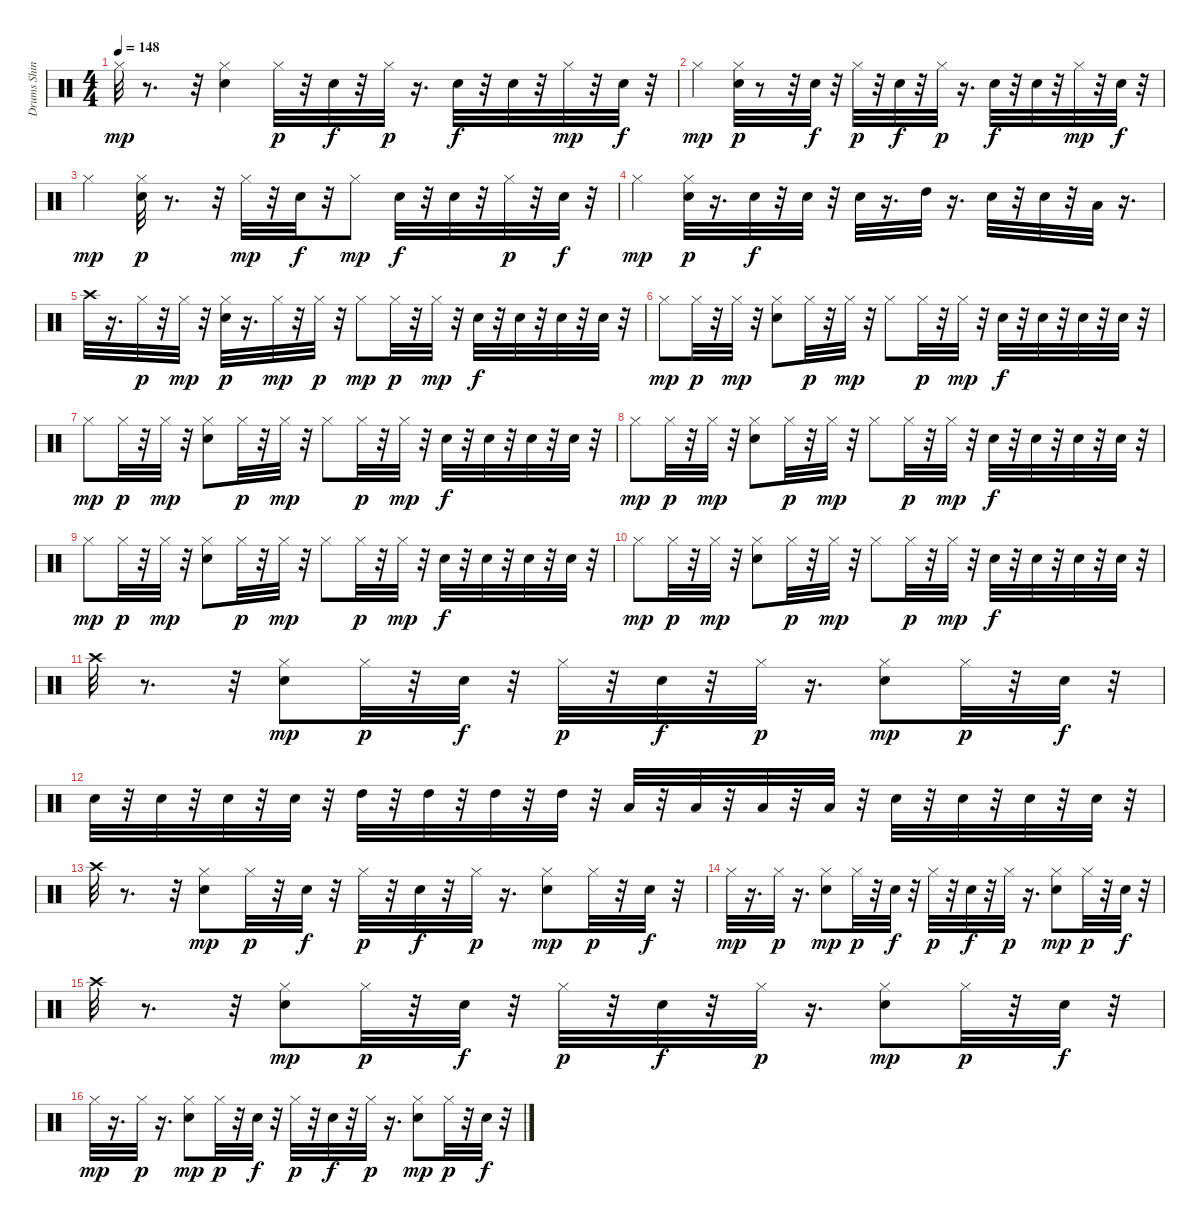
\track ("Drums Shinya         " "Drums Shin") {instrument percussion}
\staff {score}
\articulation defaults
\ts (4 4)
\tempo 148
\clef neutral
\ks c "Hi-Hat (closed)".32{dy mp}
r.8{d} r.32 ("Electric Snare (hit)" "Hi-Hat (closed)").4 "Hi-Hat (closed)".32{dy p} r.32 "Electric Snare (hit)".32{dy f} r.32 "Hi-Hat (closed)".32{dy p} r.16{d} "Electric Snare (hit)".32{dy f} r.32 "Electric Snare (hit)".32 r.32 "Hi-Hat (closed)".32{dy mp} r.32 "Electric Snare (hit)".32{dy f} r.32 |
"Hi-Hat (closed)".4{dy mp} ("Electric Snare (hit)" "Hi-Hat (closed)").32{dy p} r.8 r.32 "Electric Snare (hit)".32{dy f} r.32 "Hi-Hat (closed)".32{dy p} r.32 "Electric Snare (hit)".32{dy f} r.32 "Hi-Hat (closed)".32{dy p} r.16{d} "Electric Snare (hit)".32{dy f} r.32 "Electric Snare (hit)".32 r.32 "Hi-Hat (closed)".32{dy mp} r.32 "Electric Snare (hit)".32{dy f} r.32 |
"Hi-Hat (closed)".4{dy mp} ("Electric Snare (hit)" "Hi-Hat (closed)").32{dy p} r.8{d} r.32 "Hi-Hat (closed)".32{dy mp} r.32 "Electric Snare (hit)".32{dy f} r.32 "Hi-Hat (closed)".8{dy mp} "Electric Snare (hit)".32{dy f} r.32 "Electric Snare (hit)".32 r.32 "Hi-Hat (closed)".32{dy p} r.32 "Electric Snare (hit)".32{dy f} r.32 |
"Hi-Hat (closed)".4{dy mp} ("Electric Snare (hit)" "Hi-Hat (closed)").32{dy p} r.16{d} "Electric Snare (hit)".32{dy f} r.32 "Electric Snare (hit)".32 r.32 "Electric Snare (hit)".32 r.16{d} "High Tom (hit)".32 r.16{d} "Electric Snare (hit)".32 r.32 "Electric Snare (hit)".32 r.32 "Low Tom (hit)".32 r.16{d} |
"Crash high (hit)".32 r.16{d} "Hi-Hat (closed)".32{dy p} r.32 "Hi-Hat (closed)".32{dy mp} r.32 ("Electric Snare (hit)" "Hi-Hat (closed)").32{dy p} r.16{d} "Hi-Hat (closed)".32{dy mp} r.32 "Hi-Hat (closed)".32{dy p} r.32 "Hi-Hat (closed)".8{dy mp} "Hi-Hat (closed)".32{dy p} r.32 "Hi-Hat (closed)".32{dy mp} r.32 "Electric Snare (hit)".32{dy f} r.32 "Electric Snare (hit)".32 r.32 "Electric Snare (hit)".32 r.32 "Electric Snare (hit)".32 r.32 |
"Hi-Hat (closed)".8{dy mp} "Hi-Hat (closed)".32{dy p} r.32 "Hi-Hat (closed)".32{dy mp} r.32 ("Electric Snare (hit)" "Hi-Hat (closed)").8 "Hi-Hat (closed)".32{dy p} r.32 "Hi-Hat (closed)".32{dy mp} r.32 "Hi-Hat (closed)".8 "Hi-Hat (closed)".32{dy p} r.32 "Hi-Hat (closed)".32{dy mp} r.32 "Electric Snare (hit)".32{dy f} r.32 "Electric Snare (hit)".32 r.32 "Electric Snare (hit)".32 r.32 "Electric Snare (hit)".32 r.32 |
"Hi-Hat (closed)".8{dy mp} "Hi-Hat (closed)".32{dy p} r.32 "Hi-Hat (closed)".32{dy mp} r.32 ("Electric Snare (hit)" "Hi-Hat (closed)").8 "Hi-Hat (closed)".32{dy p} r.32 "Hi-Hat (closed)".32{dy mp} r.32 "Hi-Hat (closed)".8 "Hi-Hat (closed)".32{dy p} r.32 "Hi-Hat (closed)".32{dy mp} r.32 "Electric Snare (hit)".32{dy f} r.32 "Electric Snare (hit)".32 r.32 "Electric Snare (hit)".32 r.32 "Electric Snare (hit)".32 r.32 |
"Hi-Hat (closed)".8{dy mp} "Hi-Hat (closed)".32{dy p} r.32 "Hi-Hat (closed)".32{dy mp} r.32 ("Electric Snare (hit)" "Hi-Hat (closed)").8 "Hi-Hat (closed)".32{dy p} r.32 "Hi-Hat (closed)".32{dy mp} r.32 "Hi-Hat (closed)".8 "Hi-Hat (closed)".32{dy p} r.32 "Hi-Hat (closed)".32{dy mp} r.32 "Electric Snare (hit)".32{dy f} r.32 "Electric Snare (hit)".32 r.32 "Electric Snare (hit)".32 r.32 "Electric Snare (hit)".32 r.32 |
"Hi-Hat (closed)".8{dy mp} "Hi-Hat (closed)".32{dy p} r.32 "Hi-Hat (closed)".32{dy mp} r.32 ("Electric Snare (hit)" "Hi-Hat (closed)").8 "Hi-Hat (closed)".32{dy p} r.32 "Hi-Hat (closed)".32{dy mp} r.32 "Hi-Hat (closed)".8 "Hi-Hat (closed)".32{dy p} r.32 "Hi-Hat (closed)".32{dy mp} r.32 "Electric Snare (hit)".32{dy f} r.32 "Electric Snare (hit)".32 r.32 "Electric Snare (hit)".32 r.32 "Electric Snare (hit)".32 r.32 |
"Hi-Hat (closed)".8{dy mp} "Hi-Hat (closed)".32{dy p} r.32 "Hi-Hat (closed)".32{dy mp} r.32 ("Electric Snare (hit)" "Hi-Hat (closed)").8 "Hi-Hat (closed)".32{dy p} r.32 "Hi-Hat (closed)".32{dy mp} r.32 "Hi-Hat (closed)".8 "Hi-Hat (closed)".32{dy p} r.32 "Hi-Hat (closed)".32{dy mp} r.32 "Electric Snare (hit)".32{dy f} r.32 "Electric Snare (hit)".32 r.32 "Electric Snare (hit)".32 r.32 "Electric Snare (hit)".32 r.32 |
"Crash high (hit)".32 r.8{d} r.32 ("Electric Snare (hit)" "Hi-Hat (closed)").8{dy mp} "Hi-Hat (closed)".32{dy p} r.32 "Electric Snare (hit)".32{dy f} r.32 "Hi-Hat (closed)".32{dy p} r.32 "Electric Snare (hit)".32{dy f} r.32 "Hi-Hat (closed)".32{dy p} r.16{d} ("Electric Snare (hit)" "Hi-Hat (closed)").8{dy mp} "Hi-Hat (closed)".32{dy p} r.32 "Electric Snare (hit)".32{dy f} r.32 |
"Electric Snare (hit)".32 r.32 "Electric Snare (hit)".32 r.32 "Electric Snare (hit)".32 r.32 "Electric Snare (hit)".32 r.32 "High Tom (hit)".32 r.32 "High Tom (hit)".32 r.32 "High Tom (hit)".32 r.32 "High Tom (hit)".32 r.32 "Low Tom (hit)".32 r.32 "Low Tom (hit)".32 r.32 "Low Tom (hit)".32 r.32 "Low Tom (hit)".32 r.32 "Electric Snare (hit)".32 r.32 "Electric Snare (hit)".32 r.32 "Electric Snare (hit)".32 r.32 "Electric Snare (hit)".32 r.32 |
"Crash high (hit)".32 r.8{d} r.32 ("Electric Snare (hit)" "Hi-Hat (closed)").8{dy mp} "Hi-Hat (closed)".32{dy p} r.32 "Electric Snare (hit)".32{dy f} r.32 "Hi-Hat (closed)".32{dy p} r.32 "Electric Snare (hit)".32{dy f} r.32 "Hi-Hat (closed)".32{dy p} r.16{d} ("Electric Snare (hit)" "Hi-Hat (closed)").8{dy mp} "Hi-Hat (closed)".32{dy p} r.32 "Electric Snare (hit)".32{dy f} r.32 |
"Hi-Hat (closed)".32{dy mp} r.16{d} "Hi-Hat (closed)".32{dy p} r.16{d} ("Electric Snare (hit)" "Hi-Hat (closed)").8{dy mp} "Hi-Hat (closed)".32{dy p} r.32 "Electric Snare (hit)".32{dy f} r.32 "Hi-Hat (closed)".32{dy p} r.32 "Electric Snare (hit)".32{dy f} r.32 "Hi-Hat (closed)".32{dy p} r.16{d} ("Electric Snare (hit)" "Hi-Hat (closed)").8{dy mp} "Hi-Hat (closed)".32{dy p} r.32 "Electric Snare (hit)".32{dy f} r.32 |
"Crash high (hit)".32 r.8{d} r.32 ("Electric Snare (hit)" "Hi-Hat (closed)").8{dy mp} "Hi-Hat (closed)".32{dy p} r.32 "Electric Snare (hit)".32{dy f} r.32 "Hi-Hat (closed)".32{dy p} r.32 "Electric Snare (hit)".32{dy f} r.32 "Hi-Hat (closed)".32{dy p} r.16{d} ("Electric Snare (hit)" "Hi-Hat (closed)").8{dy mp} "Hi-Hat (closed)".32{dy p} r.32 "Electric Snare (hit)".32{dy f} r.32 |
"Hi-Hat (closed)".32{dy mp} r.16{d} "Hi-Hat (closed)".32{dy p} r.16{d} ("Electric Snare (hit)" "Hi-Hat (closed)").8{dy mp} "Hi-Hat (closed)".32{dy p} r.32 "Electric Snare (hit)".32{dy f} r.32 "Hi-Hat (closed)".32{dy p} r.32 "Electric Snare (hit)".32{dy f} r.32 "Hi-Hat (closed)".32{dy p} r.16{d} ("Electric Snare (hit)" "Hi-Hat (closed)").8{dy mp} "Hi-Hat (closed)".32{dy p} r.32 "Electric Snare (hit)".32{dy f} r.32
